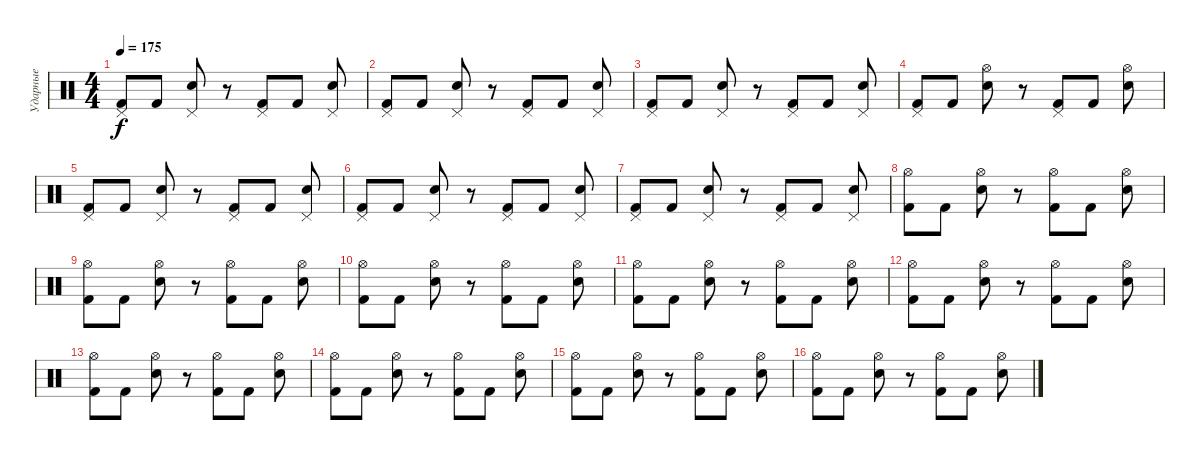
\track ("Ударные" "Ударные") {instrument percussion}
\staff {score}
\articulation defaults
\ts (4 4)
\tempo 175
\clef neutral
\ks c
("Kick (hit) 2" "Pedal Hi-Hat (hit)").8{dy f} "Kick (hit) 2".8 ("Electric Snare (hit)" "Pedal Hi-Hat (hit)").8 r.8 ("Kick (hit) 2" "Pedal Hi-Hat (hit)").8 "Kick (hit) 2".8 ("Electric Snare (hit)" "Pedal Hi-Hat (hit)").8 |
("Kick (hit) 2" "Pedal Hi-Hat (hit)").8 "Kick (hit) 2".8 ("Electric Snare (hit)" "Pedal Hi-Hat (hit)").8 r.8 ("Kick (hit) 2" "Pedal Hi-Hat (hit)").8 "Kick (hit) 2".8 ("Electric Snare (hit)" "Pedal Hi-Hat (hit)").8 |
("Kick (hit) 2" "Pedal Hi-Hat (hit)").8 "Kick (hit) 2".8 ("Electric Snare (hit)" "Pedal Hi-Hat (hit)").8 r.8 ("Kick (hit) 2" "Pedal Hi-Hat (hit)").8 "Kick (hit) 2".8 ("Electric Snare (hit)" "Pedal Hi-Hat (hit)").8 |
("Kick (hit) 2" "Pedal Hi-Hat (hit)").8 "Kick (hit) 2".8 ("Electric Snare (hit)" "Hi-Hat (open)").8 r.8 ("Kick (hit) 2" "Pedal Hi-Hat (hit)").8 "Kick (hit) 2".8 ("Electric Snare (hit)" "Hi-Hat (open)").8 |
("Kick (hit) 2" "Pedal Hi-Hat (hit)").8 "Kick (hit) 2".8 ("Electric Snare (hit)" "Pedal Hi-Hat (hit)").8 r.8 ("Kick (hit) 2" "Pedal Hi-Hat (hit)").8 "Kick (hit) 2".8 ("Electric Snare (hit)" "Pedal Hi-Hat (hit)").8 |
("Kick (hit) 2" "Pedal Hi-Hat (hit)").8 "Kick (hit) 2".8 ("Electric Snare (hit)" "Pedal Hi-Hat (hit)").8 r.8 ("Kick (hit) 2" "Pedal Hi-Hat (hit)").8 "Kick (hit) 2".8 ("Electric Snare (hit)" "Pedal Hi-Hat (hit)").8 |
("Kick (hit) 2" "Pedal Hi-Hat (hit)").8 "Kick (hit) 2".8 ("Electric Snare (hit)" "Pedal Hi-Hat (hit)").8 r.8 ("Kick (hit) 2" "Pedal Hi-Hat (hit)").8 "Kick (hit) 2".8 ("Electric Snare (hit)" "Pedal Hi-Hat (hit)").8 |
("Kick (hit) 2" "Hi-Hat (open)").8 "Kick (hit) 2".8 ("Electric Snare (hit)" "Hi-Hat (open)").8 r.8 ("Kick (hit) 2" "Hi-Hat (open)").8 "Kick (hit) 2".8 ("Electric Snare (hit)" "Hi-Hat (open)").8 |
("Kick (hit) 2" "Hi-Hat (open)").8 "Kick (hit) 2".8 ("Electric Snare (hit)" "Hi-Hat (open)").8 r.8 ("Kick (hit) 2" "Hi-Hat (open)").8 "Kick (hit) 2".8 ("Electric Snare (hit)" "Hi-Hat (open)").8 |
("Kick (hit) 2" "Hi-Hat (open)").8 "Kick (hit) 2".8 ("Electric Snare (hit)" "Hi-Hat (open)").8 r.8 ("Kick (hit) 2" "Hi-Hat (open)").8 "Kick (hit) 2".8 ("Electric Snare (hit)" "Hi-Hat (open)").8 |
("Kick (hit) 2" "Hi-Hat (open)").8 "Kick (hit) 2".8 ("Electric Snare (hit)" "Hi-Hat (open)").8 r.8 ("Kick (hit) 2" "Hi-Hat (open)").8 "Kick (hit) 2".8 ("Electric Snare (hit)" "Hi-Hat (open)").8 |
("Kick (hit) 2" "Hi-Hat (open)").8 "Kick (hit) 2".8 ("Electric Snare (hit)" "Hi-Hat (open)").8 r.8 ("Kick (hit) 2" "Hi-Hat (open)").8 "Kick (hit) 2".8 ("Electric Snare (hit)" "Hi-Hat (open)").8 |
("Kick (hit) 2" "Hi-Hat (open)").8 "Kick (hit) 2".8 ("Electric Snare (hit)" "Hi-Hat (open)").8 r.8 ("Kick (hit) 2" "Hi-Hat (open)").8 "Kick (hit) 2".8 ("Electric Snare (hit)" "Hi-Hat (open)").8 |
("Kick (hit) 2" "Hi-Hat (open)").8 "Kick (hit) 2".8 ("Electric Snare (hit)" "Hi-Hat (open)").8 r.8 ("Kick (hit) 2" "Hi-Hat (open)").8 "Kick (hit) 2".8 ("Electric Snare (hit)" "Hi-Hat (open)").8 |
("Kick (hit) 2" "Hi-Hat (open)").8 "Kick (hit) 2".8 ("Electric Snare (hit)" "Hi-Hat (open)").8 r.8 ("Kick (hit) 2" "Hi-Hat (open)").8 "Kick (hit) 2".8 ("Electric Snare (hit)" "Hi-Hat (open)").8 |
("Kick (hit) 2" "Hi-Hat (open)").8 "Kick (hit) 2".8 ("Electric Snare (hit)" "Hi-Hat (open)").8 r.8 ("Kick (hit) 2" "Hi-Hat (open)").8 "Kick (hit) 2".8 ("Electric Snare (hit)" "Hi-Hat (open)").8
